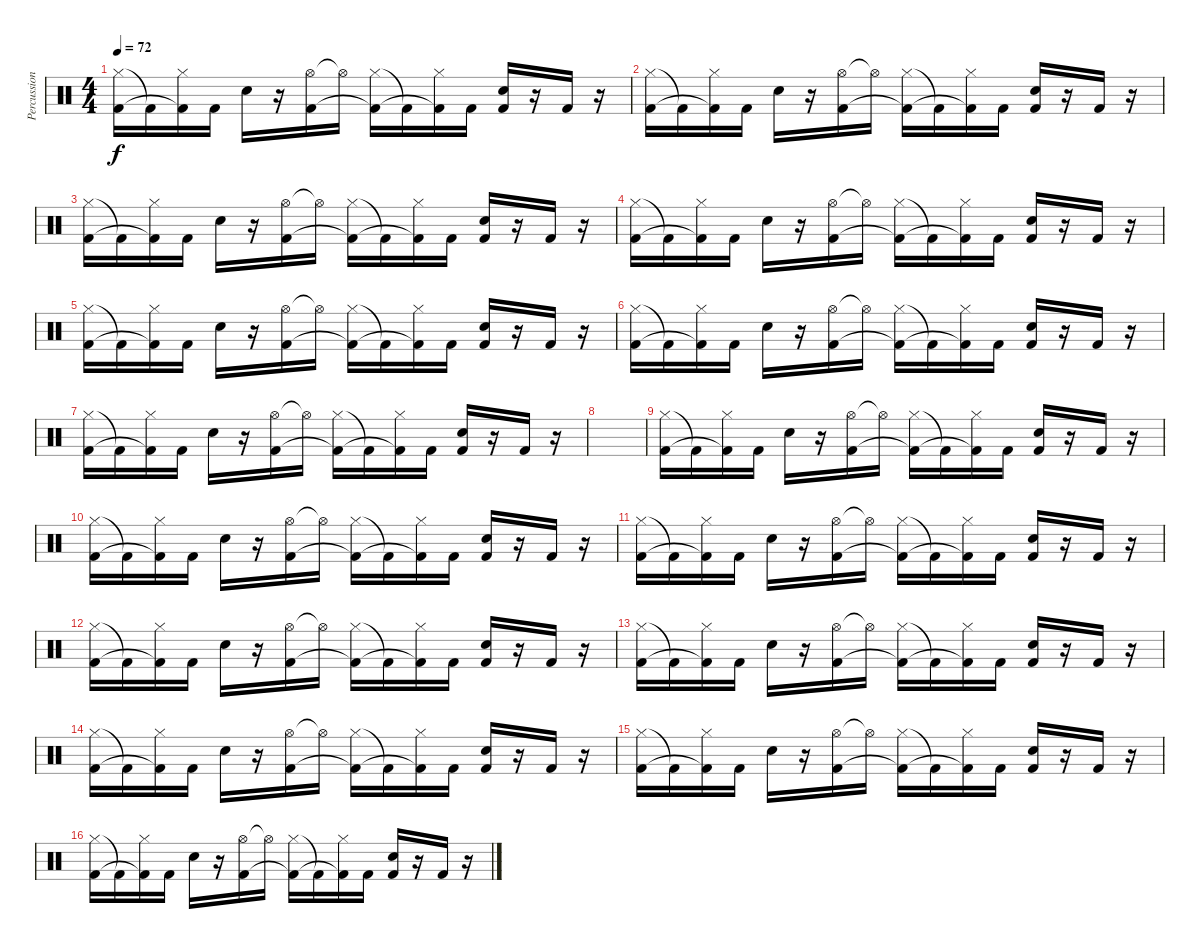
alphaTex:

\track ("Percussion" "Percussion") {instrument percussion}
\staff {score}
\articulation defaults
\ts (4 4)
\tempo 72
\clef neutral
\ks c
("Hi-Hat (closed)" "Kick (hit) 2").16{dy f} "Kick (hit) 2"{t}.16 ("Hi-Hat (closed)" "Kick (hit) 2"{t}).16 "Kick (hit) 2".16 "Snare (hit) 2".16 r.16 ("Hi-Hat (open)" "Kick (hit) 2").16 "Hi-Hat (open)"{t}.16 ("Hi-Hat (closed)" "Kick (hit) 2"{t}).16 "Kick (hit) 2"{t}.16 ("Hi-Hat (closed)" "Kick (hit) 2"{t}).16 "Kick (hit) 2".16 ("Snare (hit) 2" "Kick (hit) 2").16 r.16 "Kick (hit) 2".16 r.16 |
("Hi-Hat (closed)" "Kick (hit) 2").16 "Kick (hit) 2"{t}.16 ("Hi-Hat (closed)" "Kick (hit) 2"{t}).16 "Kick (hit) 2".16 "Snare (hit) 2".16 r.16 ("Hi-Hat (open)" "Kick (hit) 2").16 "Hi-Hat (open)"{t}.16 ("Hi-Hat (closed)" "Kick (hit) 2"{t}).16 "Kick (hit) 2"{t}.16 ("Hi-Hat (closed)" "Kick (hit) 2"{t}).16 "Kick (hit) 2".16 ("Snare (hit) 2" "Kick (hit) 2").16 r.16 "Kick (hit) 2".16 r.16 |
("Hi-Hat (closed)" "Kick (hit) 2").16 "Kick (hit) 2"{t}.16 ("Hi-Hat (closed)" "Kick (hit) 2"{t}).16 "Kick (hit) 2".16 "Snare (hit) 2".16 r.16 ("Hi-Hat (open)" "Kick (hit) 2").16 "Hi-Hat (open)"{t}.16 ("Hi-Hat (closed)" "Kick (hit) 2"{t}).16 "Kick (hit) 2"{t}.16 ("Hi-Hat (closed)" "Kick (hit) 2"{t}).16 "Kick (hit) 2".16 ("Snare (hit) 2" "Kick (hit) 2").16 r.16 "Kick (hit) 2".16 r.16 |
("Hi-Hat (closed)" "Kick (hit) 2").16 "Kick (hit) 2"{t}.16 ("Hi-Hat (closed)" "Kick (hit) 2"{t}).16 "Kick (hit) 2".16 "Snare (hit) 2".16 r.16 ("Hi-Hat (open)" "Kick (hit) 2").16 "Hi-Hat (open)"{t}.16 ("Hi-Hat (closed)" "Kick (hit) 2"{t}).16 "Kick (hit) 2"{t}.16 ("Hi-Hat (closed)" "Kick (hit) 2"{t}).16 "Kick (hit) 2".16 ("Snare (hit) 2" "Kick (hit) 2").16 r.16 "Kick (hit) 2".16 r.16 |
("Hi-Hat (closed)" "Kick (hit) 2").16 "Kick (hit) 2"{t}.16 ("Hi-Hat (closed)" "Kick (hit) 2"{t}).16 "Kick (hit) 2".16 "Snare (hit) 2".16 r.16 ("Hi-Hat (open)" "Kick (hit) 2").16 "Hi-Hat (open)"{t}.16 ("Hi-Hat (closed)" "Kick (hit) 2"{t}).16 "Kick (hit) 2"{t}.16 ("Hi-Hat (closed)" "Kick (hit) 2"{t}).16 "Kick (hit) 2".16 ("Snare (hit) 2" "Kick (hit) 2").16 r.16 "Kick (hit) 2".16 r.16 |
("Hi-Hat (closed)" "Kick (hit) 2").16 "Kick (hit) 2"{t}.16 ("Hi-Hat (closed)" "Kick (hit) 2"{t}).16 "Kick (hit) 2".16 "Snare (hit) 2".16 r.16 ("Hi-Hat (open)" "Kick (hit) 2").16 "Hi-Hat (open)"{t}.16 ("Hi-Hat (closed)" "Kick (hit) 2"{t}).16 "Kick (hit) 2"{t}.16 ("Hi-Hat (closed)" "Kick (hit) 2"{t}).16 "Kick (hit) 2".16 ("Snare (hit) 2" "Kick (hit) 2").16 r.16 "Kick (hit) 2".16 r.16 |
("Hi-Hat (closed)" "Kick (hit) 2").16 "Kick (hit) 2"{t}.16 ("Hi-Hat (closed)" "Kick (hit) 2"{t}).16 "Kick (hit) 2".16 "Snare (hit) 2".16 r.16 ("Hi-Hat (open)" "Kick (hit) 2").16 "Hi-Hat (open)"{t}.16 ("Hi-Hat (closed)" "Kick (hit) 2"{t}).16 "Kick (hit) 2"{t}.16 ("Hi-Hat (closed)" "Kick (hit) 2"{t}).16 "Kick (hit) 2".16 ("Snare (hit) 2" "Kick (hit) 2").16 r.16 "Kick (hit) 2".16 r.16 |
|
("Hi-Hat (closed)" "Kick (hit) 2").16 "Kick (hit) 2"{t}.16 ("Hi-Hat (closed)" "Kick (hit) 2"{t}).16 "Kick (hit) 2".16 "Snare (hit) 2".16 r.16 ("Hi-Hat (open)" "Kick (hit) 2").16 "Hi-Hat (open)"{t}.16 ("Hi-Hat (closed)" "Kick (hit) 2"{t}).16 "Kick (hit) 2"{t}.16 ("Hi-Hat (closed)" "Kick (hit) 2"{t}).16 "Kick (hit) 2".16 ("Snare (hit) 2" "Kick (hit) 2").16 r.16 "Kick (hit) 2".16 r.16 |
("Hi-Hat (closed)" "Kick (hit) 2").16 "Kick (hit) 2"{t}.16 ("Hi-Hat (closed)" "Kick (hit) 2"{t}).16 "Kick (hit) 2".16 "Snare (hit) 2".16 r.16 ("Hi-Hat (open)" "Kick (hit) 2").16 "Hi-Hat (open)"{t}.16 ("Hi-Hat (closed)" "Kick (hit) 2"{t}).16 "Kick (hit) 2"{t}.16 ("Hi-Hat (closed)" "Kick (hit) 2"{t}).16 "Kick (hit) 2".16 ("Snare (hit) 2" "Kick (hit) 2").16 r.16 "Kick (hit) 2".16 r.16 |
("Hi-Hat (closed)" "Kick (hit) 2").16 "Kick (hit) 2"{t}.16 ("Hi-Hat (closed)" "Kick (hit) 2"{t}).16 "Kick (hit) 2".16 "Snare (hit) 2".16 r.16 ("Hi-Hat (open)" "Kick (hit) 2").16 "Hi-Hat (open)"{t}.16 ("Hi-Hat (closed)" "Kick (hit) 2"{t}).16 "Kick (hit) 2"{t}.16 ("Hi-Hat (closed)" "Kick (hit) 2"{t}).16 "Kick (hit) 2".16 ("Snare (hit) 2" "Kick (hit) 2").16 r.16 "Kick (hit) 2".16 r.16 |
("Hi-Hat (closed)" "Kick (hit) 2").16 "Kick (hit) 2"{t}.16 ("Hi-Hat (closed)" "Kick (hit) 2"{t}).16 "Kick (hit) 2".16 "Snare (hit) 2".16 r.16 ("Hi-Hat (open)" "Kick (hit) 2").16 "Hi-Hat (open)"{t}.16 ("Hi-Hat (closed)" "Kick (hit) 2"{t}).16 "Kick (hit) 2"{t}.16 ("Hi-Hat (closed)" "Kick (hit) 2"{t}).16 "Kick (hit) 2".16 ("Snare (hit) 2" "Kick (hit) 2").16 r.16 "Kick (hit) 2".16 r.16 |
("Hi-Hat (closed)" "Kick (hit) 2").16 "Kick (hit) 2"{t}.16 ("Hi-Hat (closed)" "Kick (hit) 2"{t}).16 "Kick (hit) 2".16 "Snare (hit) 2".16 r.16 ("Hi-Hat (open)" "Kick (hit) 2").16 "Hi-Hat (open)"{t}.16 ("Hi-Hat (closed)" "Kick (hit) 2"{t}).16 "Kick (hit) 2"{t}.16 ("Hi-Hat (closed)" "Kick (hit) 2"{t}).16 "Kick (hit) 2".16 ("Snare (hit) 2" "Kick (hit) 2").16 r.16 "Kick (hit) 2".16 r.16 |
("Hi-Hat (closed)" "Kick (hit) 2").16 "Kick (hit) 2"{t}.16 ("Hi-Hat (closed)" "Kick (hit) 2"{t}).16 "Kick (hit) 2".16 "Snare (hit) 2".16 r.16 ("Hi-Hat (open)" "Kick (hit) 2").16 "Hi-Hat (open)"{t}.16 ("Hi-Hat (closed)" "Kick (hit) 2"{t}).16 "Kick (hit) 2"{t}.16 ("Hi-Hat (closed)" "Kick (hit) 2"{t}).16 "Kick (hit) 2".16 ("Snare (hit) 2" "Kick (hit) 2").16 r.16 "Kick (hit) 2".16 r.16 |
("Hi-Hat (closed)" "Kick (hit) 2").16 "Kick (hit) 2"{t}.16 ("Hi-Hat (closed)" "Kick (hit) 2"{t}).16 "Kick (hit) 2".16 "Snare (hit) 2".16 r.16 ("Hi-Hat (open)" "Kick (hit) 2").16 "Hi-Hat (open)"{t}.16 ("Hi-Hat (closed)" "Kick (hit) 2"{t}).16 "Kick (hit) 2"{t}.16 ("Hi-Hat (closed)" "Kick (hit) 2"{t}).16 "Kick (hit) 2".16 ("Snare (hit) 2" "Kick (hit) 2").16 r.16 "Kick (hit) 2".16 r.16 |
("Hi-Hat (closed)" "Kick (hit) 2").16 "Kick (hit) 2"{t}.16 ("Hi-Hat (closed)" "Kick (hit) 2"{t}).16 "Kick (hit) 2".16 "Snare (hit) 2".16 r.16 ("Hi-Hat (open)" "Kick (hit) 2").16 "Hi-Hat (open)"{t}.16 ("Hi-Hat (closed)" "Kick (hit) 2"{t}).16 "Kick (hit) 2"{t}.16 ("Hi-Hat (closed)" "Kick (hit) 2"{t}).16 "Kick (hit) 2".16 ("Snare (hit) 2" "Kick (hit) 2").16 r.16 "Kick (hit) 2".16 r.16
